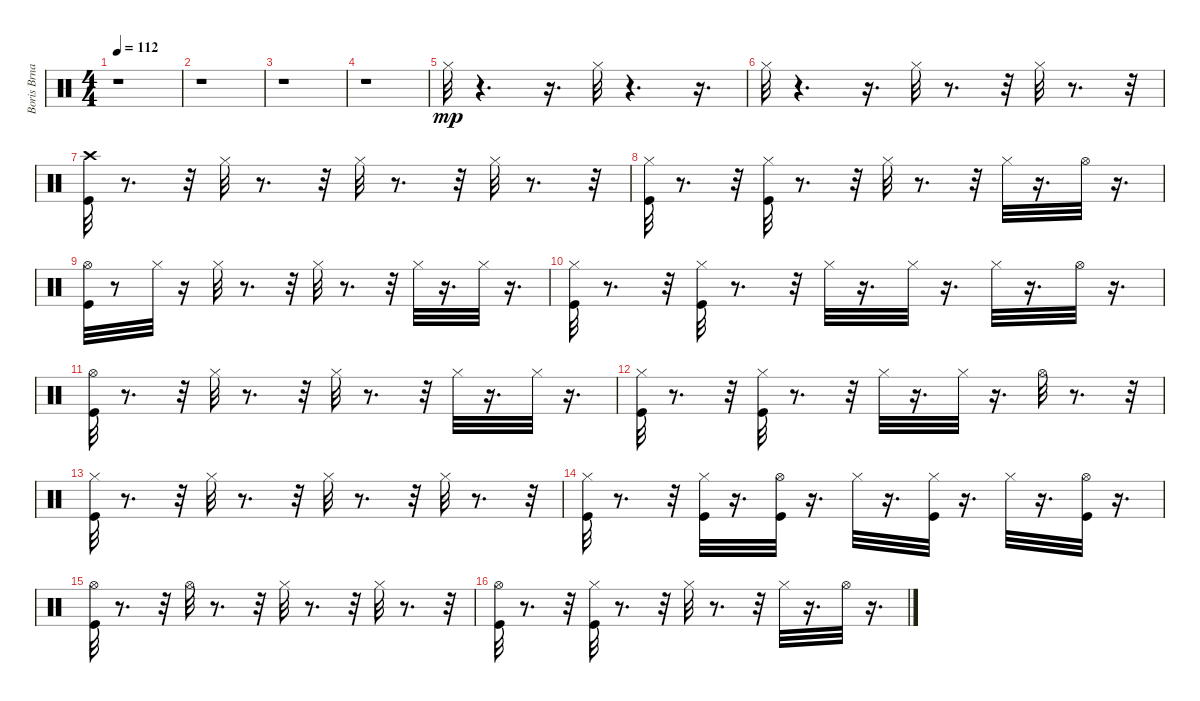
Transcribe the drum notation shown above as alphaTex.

\track ("Boris Brna (Drums)" "Boris Brna") {instrument percussion}
\staff {score}
\articulation defaults
\ts (4 4)
\tempo 112
\clef neutral
\ks c
r.1{dy f} |
r.1 |
r.1 |
r.1 |
"Hi-Hat (closed)".32{dy mp} r.4{d} r.16{d} "Hi-Hat (closed)".32 r.4{d} r.16{d} |
"Hi-Hat (closed)".32 r.4{d} r.16{d} "Hi-Hat (closed)".32 r.8{d} r.32 "Hi-Hat (closed)".32 r.8{d} r.32 |
("Kick (hit)" "Crash high (hit)").32 r.8{d} r.32 "Hi-Hat (closed)".32 r.8{d} r.32 "Hi-Hat (closed)".32 r.8{d} r.32 "Hi-Hat (closed)".32 r.8{d} r.32 |
("Kick (hit)" "Hi-Hat (closed)").32 r.8{d} r.32 ("Kick (hit)" "Hi-Hat (closed)").32 r.8{d} r.32 "Hi-Hat (closed)".32 r.8{d} r.32 "Hi-Hat (closed)".32 r.16{d} "Hi-Hat (open)".32 r.16{d} |
("Kick (hit)" "Hi-Hat (open)").32 r.8 "Hi-Hat (closed)".32 r.16 "Hi-Hat (closed)".32 r.8{d} r.32 "Hi-Hat (closed)".32 r.8{d} r.32 "Hi-Hat (closed)".32 r.16{d} "Hi-Hat (closed)".32 r.16{d} |
("Kick (hit)" "Hi-Hat (closed)").32 r.8{d} r.32 ("Kick (hit)" "Hi-Hat (closed)").32 r.8{d} r.32 "Hi-Hat (closed)".32 r.16{d} "Hi-Hat (closed)".32 r.16{d} "Hi-Hat (closed)".32 r.16{d} "Hi-Hat (open)".32 r.16{d} |
("Kick (hit)" "Hi-Hat (open)").32 r.8{d} r.32 "Hi-Hat (closed)".32 r.8{d} r.32 "Hi-Hat (closed)".32 r.8{d} r.32 "Hi-Hat (closed)".32 r.16{d} "Hi-Hat (closed)".32 r.16{d} |
("Kick (hit)" "Hi-Hat (closed)").32 r.8{d} r.32 ("Kick (hit)" "Hi-Hat (closed)").32 r.8{d} r.32 "Hi-Hat (closed)".32 r.16{d} "Hi-Hat (closed)".32 r.16{d} "Hi-Hat (open)".32 r.8{d} r.32 |
("Kick (hit)" "Hi-Hat (closed)").32 r.8{d} r.32 "Hi-Hat (closed)".32 r.8{d} r.32 "Hi-Hat (closed)".32 r.8{d} r.32 "Hi-Hat (closed)".32 r.8{d} r.32 |
("Kick (hit)" "Hi-Hat (closed)").32 r.8{d} r.32 ("Kick (hit)" "Hi-Hat (closed)").32 r.16{d} ("Hi-Hat (open)" "Kick (hit)").32 r.16{d} "Hi-Hat (closed)".32 r.16{d} ("Hi-Hat (closed)" "Kick (hit)").32 r.16{d} "Hi-Hat (closed)".32 r.16{d} ("Hi-Hat (open)" "Kick (hit)").32 r.16{d} |
("Kick (hit)" "Hi-Hat (open)").32 r.8{d} r.32 "Hi-Hat (open)".32 r.8{d} r.32 "Hi-Hat (closed)".32 r.8{d} r.32 "Hi-Hat (closed)".32 r.8{d} r.32 |
("Kick (hit)" "Hi-Hat (open)").32 r.8{d} r.32 ("Kick (hit)" "Hi-Hat (closed)").32 r.8{d} r.32 "Hi-Hat (closed)".32 r.8{d} r.32 "Hi-Hat (closed)".32 r.16{d} "Hi-Hat (open)".32 r.16{d}
